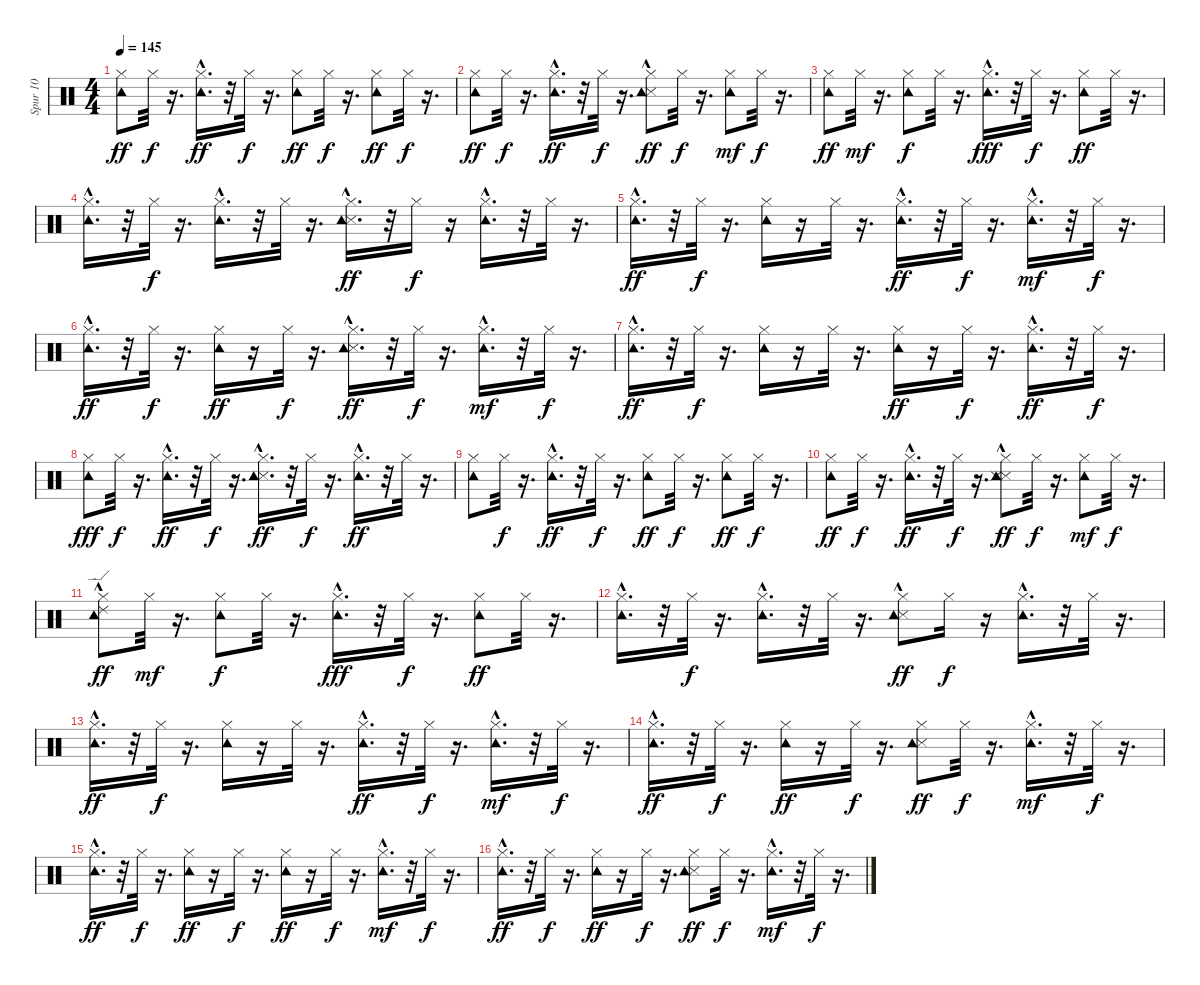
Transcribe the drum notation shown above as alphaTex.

\track ("Spur 10" "Spur 10") {instrument percussion}
\staff {score}
\articulation defaults
\ts (4 4)
\tempo 145
\clef neutral
\ks c
("Tambourine (hit)" "Hi-Hat (closed)").8{dy ff} "Hi-Hat (closed)".32{dy f} r.16{d} ("Tambourine (hit)"{hac} "Hi-Hat (closed)").16{d dy ff} r.32 "Hi-Hat (closed)".32{dy f} r.16{d} ("Tambourine (hit)" "Hi-Hat (closed)").8{dy ff} "Hi-Hat (closed)".32{dy f} r.16{d} ("Tambourine (hit)" "Hi-Hat (closed)").8{dy ff} "Hi-Hat (closed)".32{dy f} r.16{d} |
("Tambourine (hit)" "Hi-Hat (closed)").8{dy ff} "Hi-Hat (closed)".32{dy f} r.16{d} ("Tambourine (hit)"{hac} "Hi-Hat (closed)").16{d dy ff} r.32 "Hi-Hat (closed)".32{dy f} r.16{d} ("Snare (side stick) 3" "Tambourine (hit)"{hac} "Hi-Hat (closed)").8{dy ff} "Hi-Hat (closed)".32{dy f} r.16{d} ("Tambourine (hit)" "Hi-Hat (closed)").8{dy mf} "Hi-Hat (closed)".32{dy f} r.16{d} |
("Tambourine (hit)" "Hi-Hat (closed)").8{dy ff} "Hi-Hat (closed)".32{dy mf} r.16{d} ("Tambourine (hit)" "Hi-Hat (closed)").8{dy f} "Hi-Hat (closed)".32 r.16{d} ("Tambourine (hit)"{hac} "Hi-Hat (closed)").16{d dy fff} r.32 "Hi-Hat (closed)".32{dy f} r.16{d} ("Tambourine (hit)" "Hi-Hat (closed)").8{dy ff} "Hi-Hat (closed)".32 r.16{d} |
("Tambourine (hit)"{hac} "Hi-Hat (closed)").16{d} r.32 "Hi-Hat (closed)".32{dy f} r.16{d} ("Tambourine (hit)"{hac} "Hi-Hat (closed)").16{d} r.32 "Hi-Hat (closed)".32 r.16{d} ("Snare (side stick) 3" "Tambourine (hit)"{hac} "Hi-Hat (closed)").16{d dy ff} r.32 "Hi-Hat (closed)".16{dy f} r.16 ("Tambourine (hit)"{hac} "Hi-Hat (closed)").16{d} r.32 "Hi-Hat (closed)".32 r.16{d} |
("Tambourine (hit)"{hac} "Hi-Hat (closed)").16{d dy ff} r.32 "Hi-Hat (closed)".32{dy f} r.16{d} ("Tambourine (hit)" "Hi-Hat (closed)").16 r.16 "Hi-Hat (closed)".32 r.16{d} ("Tambourine (hit)"{hac} "Hi-Hat (closed)").16{d dy ff} r.32 "Hi-Hat (closed)".32{dy f} r.16{d} ("Tambourine (hit)"{hac} "Hi-Hat (closed)").16{d dy mf} r.32 "Hi-Hat (closed)".32{dy f} r.16{d} |
("Tambourine (hit)"{hac} "Hi-Hat (closed)").16{d dy ff} r.32 "Hi-Hat (closed)".32{dy f} r.16{d} ("Tambourine (hit)" "Hi-Hat (closed)").16{dy ff} r.16 "Hi-Hat (closed)".32{dy f} r.16{d} ("Snare (side stick) 3"{hac} "Tambourine (hit)" "Hi-Hat (closed)").16{d dy ff} r.32 "Hi-Hat (closed)".32{dy f} r.16{d} ("Tambourine (hit)"{hac} "Hi-Hat (closed)").16{d dy mf} r.32 "Hi-Hat (closed)".32{dy f} r.16{d} |
("Tambourine (hit)"{hac} "Hi-Hat (closed)").16{d dy ff} r.32 "Hi-Hat (closed)".32{dy f} r.16{d} ("Tambourine (hit)" "Hi-Hat (closed)").16 r.16 "Hi-Hat (closed)".32 r.16{d} ("Tambourine (hit)" "Hi-Hat (closed)").16{dy ff} r.16 "Hi-Hat (closed)".32{dy f} r.16{d} ("Tambourine (hit)"{hac} "Hi-Hat (closed)").16{d dy ff} r.32 "Hi-Hat (closed)".32{dy f} r.16{d} |
("Tambourine (hit)" "Hi-Hat (closed)").8{dy fff} "Hi-Hat (closed)".32{dy f} r.16{d} ("Tambourine (hit)"{hac} "Hi-Hat (closed)").16{d dy ff} r.32 "Hi-Hat (closed)".32{dy f} r.16{d} ("Snare (side stick) 3"{hac} "Tambourine (hit)"{hac} "Hi-Hat (closed)").16{d dy ff} r.32 "Hi-Hat (closed)".32{dy f} r.16{d} ("Tambourine (hit)"{hac} "Hi-Hat (closed)").16{d dy ff} r.32 "Hi-Hat (closed)".32 r.16{d} |
("Tambourine (hit)" "Hi-Hat (closed)").8 "Hi-Hat (closed)".32{dy f} r.16{d} ("Tambourine (hit)"{hac} "Hi-Hat (closed)").16{d dy ff} r.32 "Hi-Hat (closed)".32{dy f} r.16{d} ("Tambourine (hit)" "Hi-Hat (closed)").8{dy ff} "Hi-Hat (closed)".32{dy f} r.16{d} ("Tambourine (hit)" "Hi-Hat (closed)").8{dy ff} "Hi-Hat (closed)".32{dy f} r.16{d} |
("Tambourine (hit)" "Hi-Hat (closed)").8{dy ff} "Hi-Hat (closed)".32{dy f} r.16{d} ("Tambourine (hit)"{hac} "Hi-Hat (closed)").16{d dy ff} r.32 "Hi-Hat (closed)".32{dy f} r.16{d} ("Snare (side stick) 3"{hac} "Snare (side stick) 3"{hac} "Tambourine (hit)"{hac} "Hi-Hat (closed)").8{dy ff} "Hi-Hat (closed)".32{dy f} r.16{d} ("Tambourine (hit)" "Hi-Hat (closed)").8{dy mf} "Hi-Hat (closed)".32{dy f} r.16{d} |
("Ride (edge) 2"{hac} "Tambourine (hit)" "Hi-Hat (closed)").8{dy ff} "Hi-Hat (closed)".32{dy mf} r.16{d} ("Tambourine (hit)" "Hi-Hat (closed)").8{dy f} "Hi-Hat (closed)".32 r.16{d} ("Tambourine (hit)"{hac} "Hi-Hat (closed)").16{d dy fff} r.32 "Hi-Hat (closed)".32{dy f} r.16{d} ("Tambourine (hit)" "Hi-Hat (closed)").8{dy ff} "Hi-Hat (closed)".32 r.16{d} |
("Tambourine (hit)"{hac} "Hi-Hat (closed)").16{d} r.32 "Hi-Hat (closed)".32{dy f} r.16{d} ("Tambourine (hit)"{hac} "Hi-Hat (closed)").16{d} r.32 "Hi-Hat (closed)".32 r.16{d} ("Snare (side stick) 3" "Tambourine (hit)"{hac} "Hi-Hat (closed)").8{dy ff} "Hi-Hat (closed)".16{dy f} r.16 ("Tambourine (hit)"{hac} "Hi-Hat (closed)").16{d} r.32 "Hi-Hat (closed)".32 r.16{d} |
("Tambourine (hit)"{hac} "Hi-Hat (closed)").16{d dy ff} r.32 "Hi-Hat (closed)".32{dy f} r.16{d} ("Tambourine (hit)" "Hi-Hat (closed)").16 r.16 "Hi-Hat (closed)".32 r.16{d} ("Tambourine (hit)"{hac} "Hi-Hat (closed)").16{d dy ff} r.32 "Hi-Hat (closed)".32{dy f} r.16{d} ("Tambourine (hit)"{hac} "Hi-Hat (closed)").16{d dy mf} r.32 "Hi-Hat (closed)".32{dy f} r.16{d} |
("Tambourine (hit)"{hac} "Hi-Hat (closed)").16{d dy ff} r.32 "Hi-Hat (closed)".32{dy f} r.16{d} ("Tambourine (hit)" "Hi-Hat (closed)").16{dy ff} r.16 "Hi-Hat (closed)".32{dy f} r.16{d} ("Snare (side stick) 3" "Tambourine (hit)" "Hi-Hat (closed)").8{dy ff} "Hi-Hat (closed)".32{dy f} r.16{d} ("Tambourine (hit)"{hac} "Hi-Hat (closed)").16{d dy mf} r.32 "Hi-Hat (closed)".32{dy f} r.16{d} |
("Tambourine (hit)"{hac} "Hi-Hat (closed)").16{d dy ff} r.32 "Hi-Hat (closed)".32{dy f} r.16{d} ("Tambourine (hit)" "Hi-Hat (closed)").16{dy ff} r.16 "Hi-Hat (closed)".32{dy f} r.16{d} ("Tambourine (hit)" "Hi-Hat (closed)").16{dy ff} r.16 "Hi-Hat (closed)".32{dy f} r.16{d} ("Tambourine (hit)"{hac} "Hi-Hat (closed)").16{d dy mf} r.32 "Hi-Hat (closed)".32{dy f} r.16{d} |
("Tambourine (hit)"{hac} "Hi-Hat (closed)").16{d dy ff} r.32 "Hi-Hat (closed)".32{dy f} r.16{d} ("Tambourine (hit)" "Hi-Hat (closed)").16{dy ff} r.16 "Hi-Hat (closed)".32{dy f} r.16{d} ("Snare (side stick) 3" "Tambourine (hit)" "Hi-Hat (closed)").8{dy ff} "Hi-Hat (closed)".32{dy f} r.16{d} ("Tambourine (hit)"{hac} "Hi-Hat (closed)").16{d dy mf} r.32 "Hi-Hat (closed)".32{dy f} r.16{d}
